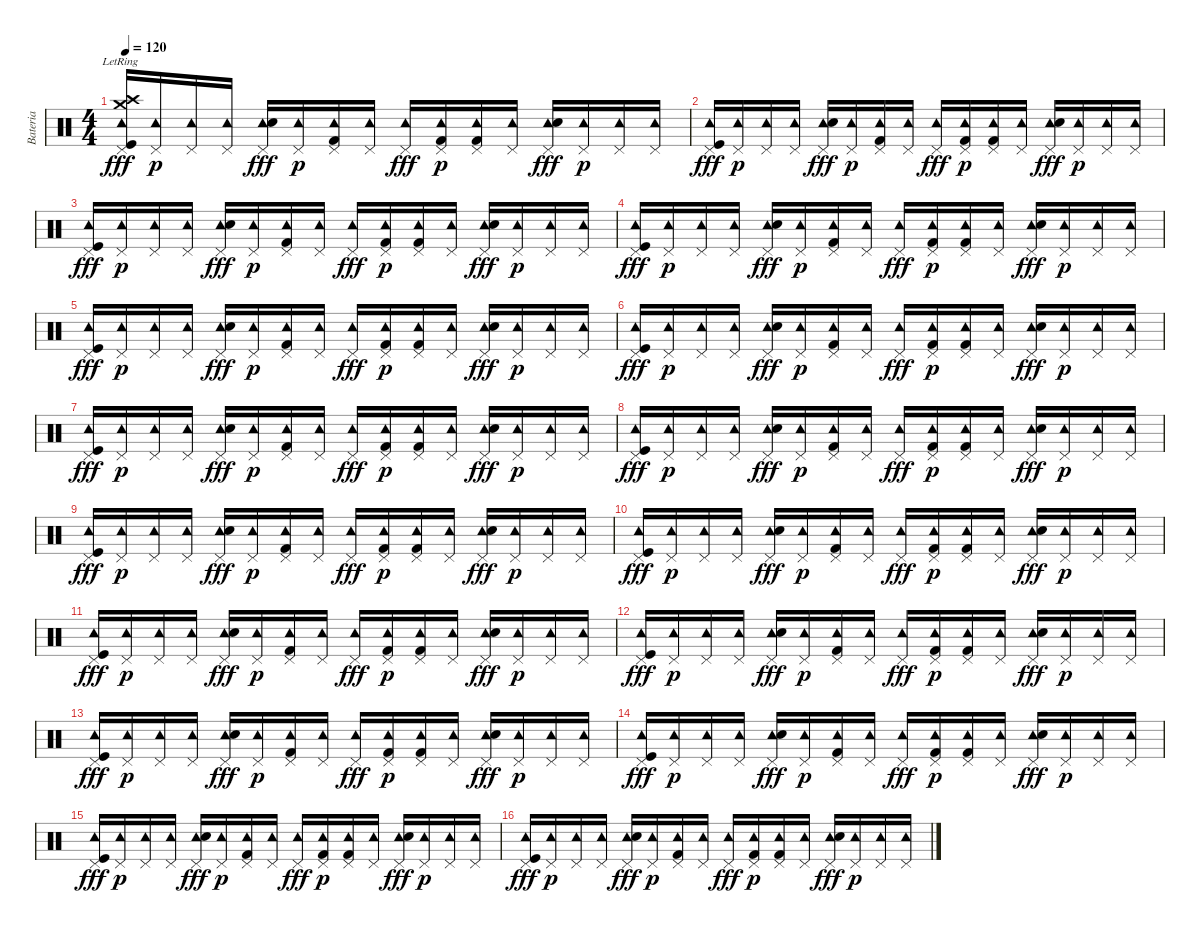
\track ("Bateria" "Bateria") {instrument percussion}
\staff {score}
\articulation defaults
\ts (4 4)
\tempo 120
\clef neutral
\ks c
("Tambourine (hit)" "Pedal Hi-Hat (hit)" "Crash medium (hit)"{lr} "Crash high (hit)"{lr} "Kick (hit)").16{dy fff} ("Tambourine (hit)" "Pedal Hi-Hat (hit)").16{dy p} ("Tambourine (hit)" "Pedal Hi-Hat (hit)").16 ("Tambourine (hit)" "Pedal Hi-Hat (hit)").16 ("Tambourine (hit)" "Pedal Hi-Hat (hit)" "Electric Snare (hit)").16{dy fff} ("Tambourine (hit)" "Pedal Hi-Hat (hit)").16{dy p} ("Tambourine (hit)" "Pedal Hi-Hat (hit)" "Kick (hit) 2").16 ("Tambourine (hit)" "Pedal Hi-Hat (hit)").16 ("Tambourine (hit)" "Pedal Hi-Hat (hit)").16{dy fff} ("Tambourine (hit)" "Pedal Hi-Hat (hit)" "Kick (hit) 2").16{dy p} ("Tambourine (hit)" "Pedal Hi-Hat (hit)" "Kick (hit) 2").16 ("Tambourine (hit)" "Pedal Hi-Hat (hit)").16 ("Tambourine (hit)" "Pedal Hi-Hat (hit)" "Electric Snare (hit)").16{dy fff} ("Tambourine (hit)" "Pedal Hi-Hat (hit)").16{dy p} ("Tambourine (hit)" "Pedal Hi-Hat (hit)").16 ("Tambourine (hit)" "Pedal Hi-Hat (hit)").16 |
("Tambourine (hit)" "Pedal Hi-Hat (hit)" "Kick (hit)").16{dy fff} ("Tambourine (hit)" "Pedal Hi-Hat (hit)").16{dy p} ("Tambourine (hit)" "Pedal Hi-Hat (hit)").16 ("Tambourine (hit)" "Pedal Hi-Hat (hit)").16 ("Tambourine (hit)" "Pedal Hi-Hat (hit)" "Electric Snare (hit)").16{dy fff} ("Tambourine (hit)" "Pedal Hi-Hat (hit)").16{dy p} ("Tambourine (hit)" "Pedal Hi-Hat (hit)" "Kick (hit) 2").16 ("Tambourine (hit)" "Pedal Hi-Hat (hit)").16 ("Tambourine (hit)" "Pedal Hi-Hat (hit)").16{dy fff} ("Tambourine (hit)" "Pedal Hi-Hat (hit)" "Kick (hit) 2").16{dy p} ("Tambourine (hit)" "Pedal Hi-Hat (hit)" "Kick (hit) 2").16 ("Tambourine (hit)" "Pedal Hi-Hat (hit)").16 ("Tambourine (hit)" "Pedal Hi-Hat (hit)" "Electric Snare (hit)").16{dy fff} ("Tambourine (hit)" "Pedal Hi-Hat (hit)").16{dy p} ("Tambourine (hit)" "Pedal Hi-Hat (hit)").16 ("Tambourine (hit)" "Pedal Hi-Hat (hit)").16 |
("Tambourine (hit)" "Pedal Hi-Hat (hit)" "Kick (hit)").16{dy fff} ("Tambourine (hit)" "Pedal Hi-Hat (hit)").16{dy p} ("Tambourine (hit)" "Pedal Hi-Hat (hit)").16 ("Tambourine (hit)" "Pedal Hi-Hat (hit)").16 ("Tambourine (hit)" "Pedal Hi-Hat (hit)" "Electric Snare (hit)").16{dy fff} ("Tambourine (hit)" "Pedal Hi-Hat (hit)").16{dy p} ("Tambourine (hit)" "Pedal Hi-Hat (hit)" "Kick (hit) 2").16 ("Tambourine (hit)" "Pedal Hi-Hat (hit)").16 ("Tambourine (hit)" "Pedal Hi-Hat (hit)").16{dy fff} ("Tambourine (hit)" "Pedal Hi-Hat (hit)" "Kick (hit) 2").16{dy p} ("Tambourine (hit)" "Pedal Hi-Hat (hit)" "Kick (hit) 2").16 ("Tambourine (hit)" "Pedal Hi-Hat (hit)").16 ("Tambourine (hit)" "Pedal Hi-Hat (hit)" "Electric Snare (hit)").16{dy fff} ("Tambourine (hit)" "Pedal Hi-Hat (hit)").16{dy p} ("Tambourine (hit)" "Pedal Hi-Hat (hit)").16 ("Tambourine (hit)" "Pedal Hi-Hat (hit)").16 |
("Tambourine (hit)" "Pedal Hi-Hat (hit)" "Kick (hit)").16{dy fff} ("Tambourine (hit)" "Pedal Hi-Hat (hit)").16{dy p} ("Tambourine (hit)" "Pedal Hi-Hat (hit)").16 ("Tambourine (hit)" "Pedal Hi-Hat (hit)").16 ("Tambourine (hit)" "Pedal Hi-Hat (hit)" "Electric Snare (hit)").16{dy fff} ("Tambourine (hit)" "Pedal Hi-Hat (hit)").16{dy p} ("Tambourine (hit)" "Pedal Hi-Hat (hit)" "Kick (hit) 2").16 ("Tambourine (hit)" "Pedal Hi-Hat (hit)").16 ("Tambourine (hit)" "Pedal Hi-Hat (hit)").16{dy fff} ("Tambourine (hit)" "Pedal Hi-Hat (hit)" "Kick (hit) 2").16{dy p} ("Tambourine (hit)" "Pedal Hi-Hat (hit)" "Kick (hit) 2").16 ("Tambourine (hit)" "Pedal Hi-Hat (hit)").16 ("Tambourine (hit)" "Pedal Hi-Hat (hit)" "Electric Snare (hit)").16{dy fff} ("Tambourine (hit)" "Pedal Hi-Hat (hit)").16{dy p} ("Tambourine (hit)" "Pedal Hi-Hat (hit)").16 ("Tambourine (hit)" "Pedal Hi-Hat (hit)").16 |
("Tambourine (hit)" "Pedal Hi-Hat (hit)" "Kick (hit)").16{dy fff} ("Tambourine (hit)" "Pedal Hi-Hat (hit)").16{dy p} ("Tambourine (hit)" "Pedal Hi-Hat (hit)").16 ("Tambourine (hit)" "Pedal Hi-Hat (hit)").16 ("Tambourine (hit)" "Pedal Hi-Hat (hit)" "Electric Snare (hit)").16{dy fff} ("Tambourine (hit)" "Pedal Hi-Hat (hit)").16{dy p} ("Tambourine (hit)" "Pedal Hi-Hat (hit)" "Kick (hit) 2").16 ("Tambourine (hit)" "Pedal Hi-Hat (hit)").16 ("Tambourine (hit)" "Pedal Hi-Hat (hit)").16{dy fff} ("Tambourine (hit)" "Pedal Hi-Hat (hit)" "Kick (hit) 2").16{dy p} ("Tambourine (hit)" "Pedal Hi-Hat (hit)" "Kick (hit) 2").16 ("Tambourine (hit)" "Pedal Hi-Hat (hit)").16 ("Tambourine (hit)" "Pedal Hi-Hat (hit)" "Electric Snare (hit)").16{dy fff} ("Tambourine (hit)" "Pedal Hi-Hat (hit)").16{dy p} ("Tambourine (hit)" "Pedal Hi-Hat (hit)").16 ("Tambourine (hit)" "Pedal Hi-Hat (hit)").16 |
("Tambourine (hit)" "Pedal Hi-Hat (hit)" "Kick (hit)").16{dy fff} ("Tambourine (hit)" "Pedal Hi-Hat (hit)").16{dy p} ("Tambourine (hit)" "Pedal Hi-Hat (hit)").16 ("Tambourine (hit)" "Pedal Hi-Hat (hit)").16 ("Tambourine (hit)" "Pedal Hi-Hat (hit)" "Electric Snare (hit)").16{dy fff} ("Tambourine (hit)" "Pedal Hi-Hat (hit)").16{dy p} ("Tambourine (hit)" "Pedal Hi-Hat (hit)" "Kick (hit) 2").16 ("Tambourine (hit)" "Pedal Hi-Hat (hit)").16 ("Tambourine (hit)" "Pedal Hi-Hat (hit)").16{dy fff} ("Tambourine (hit)" "Pedal Hi-Hat (hit)" "Kick (hit) 2").16{dy p} ("Tambourine (hit)" "Pedal Hi-Hat (hit)" "Kick (hit) 2").16 ("Tambourine (hit)" "Pedal Hi-Hat (hit)").16 ("Tambourine (hit)" "Pedal Hi-Hat (hit)" "Electric Snare (hit)").16{dy fff} ("Tambourine (hit)" "Pedal Hi-Hat (hit)").16{dy p} ("Tambourine (hit)" "Pedal Hi-Hat (hit)").16 ("Tambourine (hit)" "Pedal Hi-Hat (hit)").16 |
("Tambourine (hit)" "Pedal Hi-Hat (hit)" "Kick (hit)").16{dy fff} ("Tambourine (hit)" "Pedal Hi-Hat (hit)").16{dy p} ("Tambourine (hit)" "Pedal Hi-Hat (hit)").16 ("Tambourine (hit)" "Pedal Hi-Hat (hit)").16 ("Tambourine (hit)" "Pedal Hi-Hat (hit)" "Electric Snare (hit)").16{dy fff} ("Tambourine (hit)" "Pedal Hi-Hat (hit)").16{dy p} ("Tambourine (hit)" "Pedal Hi-Hat (hit)" "Kick (hit) 2").16 ("Tambourine (hit)" "Pedal Hi-Hat (hit)").16 ("Tambourine (hit)" "Pedal Hi-Hat (hit)").16{dy fff} ("Tambourine (hit)" "Pedal Hi-Hat (hit)" "Kick (hit) 2").16{dy p} ("Tambourine (hit)" "Pedal Hi-Hat (hit)" "Kick (hit) 2").16 ("Tambourine (hit)" "Pedal Hi-Hat (hit)").16 ("Tambourine (hit)" "Pedal Hi-Hat (hit)" "Electric Snare (hit)").16{dy fff} ("Tambourine (hit)" "Pedal Hi-Hat (hit)").16{dy p} ("Tambourine (hit)" "Pedal Hi-Hat (hit)").16 ("Tambourine (hit)" "Pedal Hi-Hat (hit)").16 |
("Tambourine (hit)" "Pedal Hi-Hat (hit)" "Kick (hit)").16{dy fff} ("Tambourine (hit)" "Pedal Hi-Hat (hit)").16{dy p} ("Tambourine (hit)" "Pedal Hi-Hat (hit)").16 ("Tambourine (hit)" "Pedal Hi-Hat (hit)").16 ("Tambourine (hit)" "Pedal Hi-Hat (hit)" "Electric Snare (hit)").16{dy fff} ("Tambourine (hit)" "Pedal Hi-Hat (hit)").16{dy p} ("Tambourine (hit)" "Pedal Hi-Hat (hit)" "Kick (hit) 2").16 ("Tambourine (hit)" "Pedal Hi-Hat (hit)").16 ("Tambourine (hit)" "Pedal Hi-Hat (hit)").16{dy fff} ("Tambourine (hit)" "Pedal Hi-Hat (hit)" "Kick (hit) 2").16{dy p} ("Tambourine (hit)" "Pedal Hi-Hat (hit)" "Kick (hit) 2").16 ("Tambourine (hit)" "Pedal Hi-Hat (hit)").16 ("Tambourine (hit)" "Pedal Hi-Hat (hit)" "Electric Snare (hit)").16{dy fff} ("Tambourine (hit)" "Pedal Hi-Hat (hit)").16{dy p} ("Tambourine (hit)" "Pedal Hi-Hat (hit)").16 ("Tambourine (hit)" "Pedal Hi-Hat (hit)").16 |
("Tambourine (hit)" "Pedal Hi-Hat (hit)" "Kick (hit)").16{dy fff} ("Tambourine (hit)" "Pedal Hi-Hat (hit)").16{dy p} ("Tambourine (hit)" "Pedal Hi-Hat (hit)").16 ("Tambourine (hit)" "Pedal Hi-Hat (hit)").16 ("Tambourine (hit)" "Pedal Hi-Hat (hit)" "Electric Snare (hit)").16{dy fff} ("Tambourine (hit)" "Pedal Hi-Hat (hit)").16{dy p} ("Tambourine (hit)" "Pedal Hi-Hat (hit)" "Kick (hit) 2").16 ("Tambourine (hit)" "Pedal Hi-Hat (hit)").16 ("Tambourine (hit)" "Pedal Hi-Hat (hit)").16{dy fff} ("Tambourine (hit)" "Pedal Hi-Hat (hit)" "Kick (hit) 2").16{dy p} ("Tambourine (hit)" "Pedal Hi-Hat (hit)" "Kick (hit) 2").16 ("Tambourine (hit)" "Pedal Hi-Hat (hit)").16 ("Tambourine (hit)" "Pedal Hi-Hat (hit)" "Electric Snare (hit)").16{dy fff} ("Tambourine (hit)" "Pedal Hi-Hat (hit)").16{dy p} ("Tambourine (hit)" "Pedal Hi-Hat (hit)").16 ("Tambourine (hit)" "Pedal Hi-Hat (hit)").16 |
("Tambourine (hit)" "Pedal Hi-Hat (hit)" "Kick (hit)").16{dy fff} ("Tambourine (hit)" "Pedal Hi-Hat (hit)").16{dy p} ("Tambourine (hit)" "Pedal Hi-Hat (hit)").16 ("Tambourine (hit)" "Pedal Hi-Hat (hit)").16 ("Tambourine (hit)" "Pedal Hi-Hat (hit)" "Electric Snare (hit)").16{dy fff} ("Tambourine (hit)" "Pedal Hi-Hat (hit)").16{dy p} ("Tambourine (hit)" "Pedal Hi-Hat (hit)" "Kick (hit) 2").16 ("Tambourine (hit)" "Pedal Hi-Hat (hit)").16 ("Tambourine (hit)" "Pedal Hi-Hat (hit)").16{dy fff} ("Tambourine (hit)" "Pedal Hi-Hat (hit)" "Kick (hit) 2").16{dy p} ("Tambourine (hit)" "Pedal Hi-Hat (hit)" "Kick (hit) 2").16 ("Tambourine (hit)" "Pedal Hi-Hat (hit)").16 ("Tambourine (hit)" "Pedal Hi-Hat (hit)" "Electric Snare (hit)").16{dy fff} ("Tambourine (hit)" "Pedal Hi-Hat (hit)").16{dy p} ("Tambourine (hit)" "Pedal Hi-Hat (hit)").16 ("Tambourine (hit)" "Pedal Hi-Hat (hit)").16 |
("Tambourine (hit)" "Pedal Hi-Hat (hit)" "Kick (hit)").16{dy fff} ("Tambourine (hit)" "Pedal Hi-Hat (hit)").16{dy p} ("Tambourine (hit)" "Pedal Hi-Hat (hit)").16 ("Tambourine (hit)" "Pedal Hi-Hat (hit)").16 ("Tambourine (hit)" "Pedal Hi-Hat (hit)" "Electric Snare (hit)").16{dy fff} ("Tambourine (hit)" "Pedal Hi-Hat (hit)").16{dy p} ("Tambourine (hit)" "Pedal Hi-Hat (hit)" "Kick (hit) 2").16 ("Tambourine (hit)" "Pedal Hi-Hat (hit)").16 ("Tambourine (hit)" "Pedal Hi-Hat (hit)").16{dy fff} ("Tambourine (hit)" "Pedal Hi-Hat (hit)" "Kick (hit) 2").16{dy p} ("Tambourine (hit)" "Pedal Hi-Hat (hit)" "Kick (hit) 2").16 ("Tambourine (hit)" "Pedal Hi-Hat (hit)").16 ("Tambourine (hit)" "Pedal Hi-Hat (hit)" "Electric Snare (hit)").16{dy fff} ("Tambourine (hit)" "Pedal Hi-Hat (hit)").16{dy p} ("Tambourine (hit)" "Pedal Hi-Hat (hit)").16 ("Tambourine (hit)" "Pedal Hi-Hat (hit)").16 |
("Tambourine (hit)" "Pedal Hi-Hat (hit)" "Kick (hit)").16{dy fff} ("Tambourine (hit)" "Pedal Hi-Hat (hit)").16{dy p} ("Tambourine (hit)" "Pedal Hi-Hat (hit)").16 ("Tambourine (hit)" "Pedal Hi-Hat (hit)").16 ("Tambourine (hit)" "Pedal Hi-Hat (hit)" "Electric Snare (hit)").16{dy fff} ("Tambourine (hit)" "Pedal Hi-Hat (hit)").16{dy p} ("Tambourine (hit)" "Pedal Hi-Hat (hit)" "Kick (hit) 2").16 ("Tambourine (hit)" "Pedal Hi-Hat (hit)").16 ("Tambourine (hit)" "Pedal Hi-Hat (hit)").16{dy fff} ("Tambourine (hit)" "Pedal Hi-Hat (hit)" "Kick (hit) 2").16{dy p} ("Tambourine (hit)" "Pedal Hi-Hat (hit)" "Kick (hit) 2").16 ("Tambourine (hit)" "Pedal Hi-Hat (hit)").16 ("Tambourine (hit)" "Pedal Hi-Hat (hit)" "Electric Snare (hit)").16{dy fff} ("Tambourine (hit)" "Pedal Hi-Hat (hit)").16{dy p} ("Tambourine (hit)" "Pedal Hi-Hat (hit)").16 ("Tambourine (hit)" "Pedal Hi-Hat (hit)").16 |
("Tambourine (hit)" "Pedal Hi-Hat (hit)" "Kick (hit)").16{dy fff} ("Tambourine (hit)" "Pedal Hi-Hat (hit)").16{dy p} ("Tambourine (hit)" "Pedal Hi-Hat (hit)").16 ("Tambourine (hit)" "Pedal Hi-Hat (hit)").16 ("Tambourine (hit)" "Pedal Hi-Hat (hit)" "Electric Snare (hit)").16{dy fff} ("Tambourine (hit)" "Pedal Hi-Hat (hit)").16{dy p} ("Tambourine (hit)" "Pedal Hi-Hat (hit)" "Kick (hit) 2").16 ("Tambourine (hit)" "Pedal Hi-Hat (hit)").16 ("Tambourine (hit)" "Pedal Hi-Hat (hit)").16{dy fff} ("Tambourine (hit)" "Pedal Hi-Hat (hit)" "Kick (hit) 2").16{dy p} ("Tambourine (hit)" "Pedal Hi-Hat (hit)" "Kick (hit) 2").16 ("Tambourine (hit)" "Pedal Hi-Hat (hit)").16 ("Tambourine (hit)" "Pedal Hi-Hat (hit)" "Electric Snare (hit)").16{dy fff} ("Tambourine (hit)" "Pedal Hi-Hat (hit)").16{dy p} ("Tambourine (hit)" "Pedal Hi-Hat (hit)").16 ("Tambourine (hit)" "Pedal Hi-Hat (hit)").16 |
("Tambourine (hit)" "Pedal Hi-Hat (hit)" "Kick (hit)").16{dy fff} ("Tambourine (hit)" "Pedal Hi-Hat (hit)").16{dy p} ("Tambourine (hit)" "Pedal Hi-Hat (hit)").16 ("Tambourine (hit)" "Pedal Hi-Hat (hit)").16 ("Tambourine (hit)" "Pedal Hi-Hat (hit)" "Electric Snare (hit)").16{dy fff} ("Tambourine (hit)" "Pedal Hi-Hat (hit)").16{dy p} ("Tambourine (hit)" "Pedal Hi-Hat (hit)" "Kick (hit) 2").16 ("Tambourine (hit)" "Pedal Hi-Hat (hit)").16 ("Tambourine (hit)" "Pedal Hi-Hat (hit)").16{dy fff} ("Tambourine (hit)" "Pedal Hi-Hat (hit)" "Kick (hit) 2").16{dy p} ("Tambourine (hit)" "Pedal Hi-Hat (hit)" "Kick (hit) 2").16 ("Tambourine (hit)" "Pedal Hi-Hat (hit)").16 ("Tambourine (hit)" "Pedal Hi-Hat (hit)" "Electric Snare (hit)").16{dy fff} ("Tambourine (hit)" "Pedal Hi-Hat (hit)").16{dy p} ("Tambourine (hit)" "Pedal Hi-Hat (hit)").16 ("Tambourine (hit)" "Pedal Hi-Hat (hit)").16 |
("Tambourine (hit)" "Pedal Hi-Hat (hit)" "Kick (hit)").16{dy fff} ("Tambourine (hit)" "Pedal Hi-Hat (hit)").16{dy p} ("Tambourine (hit)" "Pedal Hi-Hat (hit)").16 ("Tambourine (hit)" "Pedal Hi-Hat (hit)").16 ("Tambourine (hit)" "Pedal Hi-Hat (hit)" "Electric Snare (hit)").16{dy fff} ("Tambourine (hit)" "Pedal Hi-Hat (hit)").16{dy p} ("Tambourine (hit)" "Pedal Hi-Hat (hit)" "Kick (hit) 2").16 ("Tambourine (hit)" "Pedal Hi-Hat (hit)").16 ("Tambourine (hit)" "Pedal Hi-Hat (hit)").16{dy fff} ("Tambourine (hit)" "Pedal Hi-Hat (hit)" "Kick (hit) 2").16{dy p} ("Tambourine (hit)" "Pedal Hi-Hat (hit)" "Kick (hit) 2").16 ("Tambourine (hit)" "Pedal Hi-Hat (hit)").16 ("Tambourine (hit)" "Pedal Hi-Hat (hit)" "Electric Snare (hit)").16{dy fff} ("Tambourine (hit)" "Pedal Hi-Hat (hit)").16{dy p} ("Tambourine (hit)" "Pedal Hi-Hat (hit)").16 ("Tambourine (hit)" "Pedal Hi-Hat (hit)").16 |
("Tambourine (hit)" "Pedal Hi-Hat (hit)" "Kick (hit)").16{dy fff} ("Tambourine (hit)" "Pedal Hi-Hat (hit)").16{dy p} ("Tambourine (hit)" "Pedal Hi-Hat (hit)").16 ("Tambourine (hit)" "Pedal Hi-Hat (hit)").16 ("Tambourine (hit)" "Pedal Hi-Hat (hit)" "Electric Snare (hit)").16{dy fff} ("Tambourine (hit)" "Pedal Hi-Hat (hit)").16{dy p} ("Tambourine (hit)" "Pedal Hi-Hat (hit)" "Kick (hit) 2").16 ("Tambourine (hit)" "Pedal Hi-Hat (hit)").16 ("Tambourine (hit)" "Pedal Hi-Hat (hit)").16{dy fff} ("Tambourine (hit)" "Pedal Hi-Hat (hit)" "Kick (hit) 2").16{dy p} ("Tambourine (hit)" "Pedal Hi-Hat (hit)" "Kick (hit) 2").16 ("Tambourine (hit)" "Pedal Hi-Hat (hit)").16 ("Tambourine (hit)" "Pedal Hi-Hat (hit)" "Electric Snare (hit)").16{dy fff} ("Tambourine (hit)" "Pedal Hi-Hat (hit)").16{dy p} ("Tambourine (hit)" "Pedal Hi-Hat (hit)").16 ("Tambourine (hit)" "Pedal Hi-Hat (hit)").16
